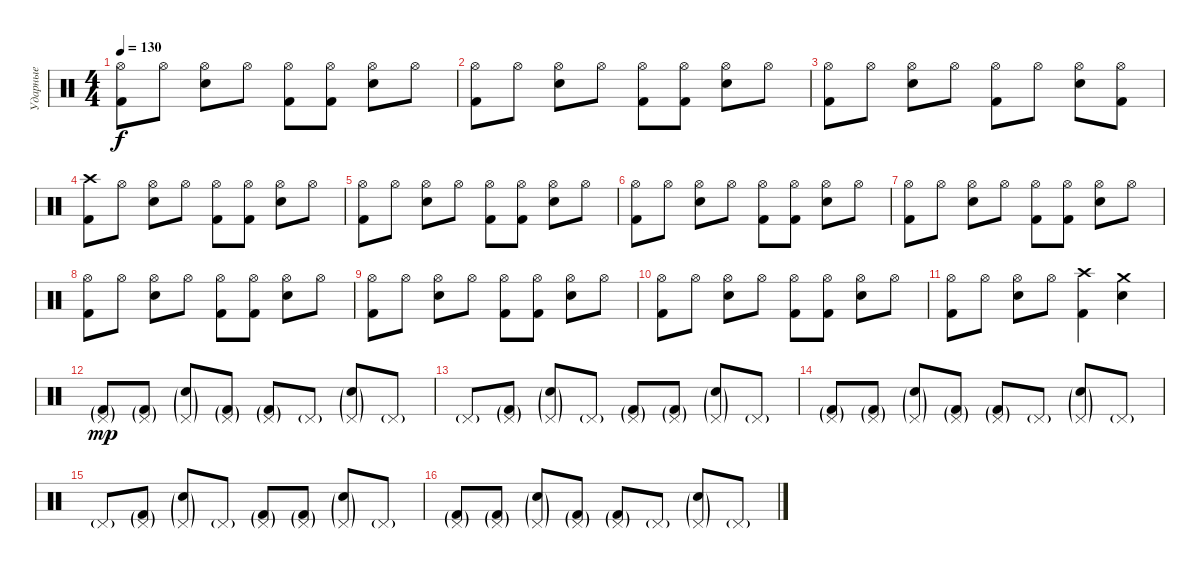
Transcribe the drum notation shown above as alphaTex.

\track ("Ударные" "Ударные") {instrument percussion}
\staff {score}
\articulation defaults
\ts (4 4)
\tempo 130
\clef neutral
\ks c
("Hi-Hat (open)" "Kick (hit) 2").8{dy f} "Hi-Hat (open)".8 ("Electric Snare (hit)" "Hi-Hat (open)").8 "Hi-Hat (open)".8 ("Hi-Hat (open)" "Kick (hit) 2").8 ("Hi-Hat (open)" "Kick (hit) 2").8 ("Hi-Hat (open)" "Electric Snare (hit)").8 "Hi-Hat (open)".8 |
("Hi-Hat (open)" "Kick (hit) 2").8 "Hi-Hat (open)".8 ("Electric Snare (hit)" "Hi-Hat (open)").8 "Hi-Hat (open)".8 ("Hi-Hat (open)" "Kick (hit) 2").8 ("Hi-Hat (open)" "Kick (hit) 2").8 ("Hi-Hat (open)" "Electric Snare (hit)").8 "Hi-Hat (open)".8 |
("Hi-Hat (open)" "Kick (hit) 2").8 "Hi-Hat (open)".8 ("Electric Snare (hit)" "Hi-Hat (open)").8 "Hi-Hat (open)".8 ("Hi-Hat (open)" "Kick (hit) 2").8 "Hi-Hat (open)".8 ("Hi-Hat (open)" "Electric Snare (hit)").8 ("Hi-Hat (open)" "Kick (hit) 2").8 |
("Crash high (hit)" "Kick (hit) 2").8 "Hi-Hat (open)".8 ("Electric Snare (hit)" "Hi-Hat (open)").8 "Hi-Hat (open)".8 ("Hi-Hat (open)" "Kick (hit) 2").8 ("Hi-Hat (open)" "Kick (hit) 2").8 ("Hi-Hat (open)" "Electric Snare (hit)").8 "Hi-Hat (open)".8 |
("Hi-Hat (open)" "Kick (hit) 2").8 "Hi-Hat (open)".8 ("Electric Snare (hit)" "Hi-Hat (open)").8 "Hi-Hat (open)".8 ("Hi-Hat (open)" "Kick (hit) 2").8 ("Hi-Hat (open)" "Kick (hit) 2").8 ("Hi-Hat (open)" "Electric Snare (hit)").8 "Hi-Hat (open)".8 |
("Hi-Hat (open)" "Kick (hit) 2").8 "Hi-Hat (open)".8 ("Electric Snare (hit)" "Hi-Hat (open)").8 "Hi-Hat (open)".8 ("Hi-Hat (open)" "Kick (hit) 2").8 ("Hi-Hat (open)" "Kick (hit) 2").8 ("Hi-Hat (open)" "Electric Snare (hit)").8 "Hi-Hat (open)".8 |
("Hi-Hat (open)" "Kick (hit) 2").8 "Hi-Hat (open)".8 ("Electric Snare (hit)" "Hi-Hat (open)").8 "Hi-Hat (open)".8 ("Hi-Hat (open)" "Kick (hit) 2").8 ("Hi-Hat (open)" "Kick (hit) 2").8 ("Hi-Hat (open)" "Electric Snare (hit)").8 "Hi-Hat (open)".8 |
("Hi-Hat (open)" "Kick (hit) 2").8 "Hi-Hat (open)".8 ("Electric Snare (hit)" "Hi-Hat (open)").8 "Hi-Hat (open)".8 ("Hi-Hat (open)" "Kick (hit) 2").8 ("Hi-Hat (open)" "Kick (hit) 2").8 ("Hi-Hat (open)" "Electric Snare (hit)").8 "Hi-Hat (open)".8 |
("Hi-Hat (open)" "Kick (hit) 2").8 "Hi-Hat (open)".8 ("Electric Snare (hit)" "Hi-Hat (open)").8 "Hi-Hat (open)".8 ("Hi-Hat (open)" "Kick (hit) 2").8 ("Hi-Hat (open)" "Kick (hit) 2").8 ("Hi-Hat (open)" "Electric Snare (hit)").8 "Hi-Hat (open)".8 |
("Hi-Hat (open)" "Kick (hit) 2").8 "Hi-Hat (open)".8 ("Electric Snare (hit)" "Hi-Hat (open)").8 "Hi-Hat (open)".8 ("Hi-Hat (open)" "Kick (hit) 2").8 ("Hi-Hat (open)" "Kick (hit) 2").8 ("Hi-Hat (open)" "Electric Snare (hit)").8 "Hi-Hat (open)".8 |
("Hi-Hat (open)" "Kick (hit) 2").8 "Hi-Hat (open)".8 ("Electric Snare (hit)" "Hi-Hat (open)").8 "Hi-Hat (open)".8 ("Crash high (hit)" "Kick (hit) 2").4 ("Crash medium (hit)" "Electric Snare (hit)").4 |
("Kick (hit) 2"{g} "Pedal Hi-Hat (hit)"{g}).8{dy mp volume 16} ("Kick (hit) 2"{g} "Pedal Hi-Hat (hit)"{g}).8 ("Snare (hit) 2"{g} "Pedal Hi-Hat (hit)"{g}).8 ("Kick (hit) 2"{g} "Pedal Hi-Hat (hit)"{g}).8 ("Kick (hit) 2"{g} "Pedal Hi-Hat (hit)"{g}).8 "Pedal Hi-Hat (hit)"{g}.8 ("Snare (hit) 2"{g} "Pedal Hi-Hat (hit)"{g}).8 "Pedal Hi-Hat (hit)"{g}.8 |
"Pedal Hi-Hat (hit)"{g}.8 ("Kick (hit) 2"{g} "Pedal Hi-Hat (hit)"{g}).8 ("Snare (hit) 2"{g} "Pedal Hi-Hat (hit)"{g}).8 "Pedal Hi-Hat (hit)"{g}.8 ("Kick (hit) 2"{g} "Pedal Hi-Hat (hit)"{g}).8 ("Kick (hit) 2"{g} "Pedal Hi-Hat (hit)"{g}).8 ("Snare (hit) 2"{g} "Pedal Hi-Hat (hit)"{g}).8 "Pedal Hi-Hat (hit)"{g}.8 |
("Kick (hit) 2"{g} "Pedal Hi-Hat (hit)"{g}).8 ("Kick (hit) 2"{g} "Pedal Hi-Hat (hit)"{g}).8 ("Snare (hit) 2"{g} "Pedal Hi-Hat (hit)"{g}).8 ("Kick (hit) 2"{g} "Pedal Hi-Hat (hit)"{g}).8 ("Kick (hit) 2"{g} "Pedal Hi-Hat (hit)"{g}).8 "Pedal Hi-Hat (hit)"{g}.8 ("Snare (hit) 2"{g} "Pedal Hi-Hat (hit)"{g}).8 "Pedal Hi-Hat (hit)"{g}.8 |
"Pedal Hi-Hat (hit)"{g}.8 ("Kick (hit) 2"{g} "Pedal Hi-Hat (hit)"{g}).8 ("Snare (hit) 2"{g} "Pedal Hi-Hat (hit)"{g}).8 "Pedal Hi-Hat (hit)"{g}.8 ("Kick (hit) 2"{g} "Pedal Hi-Hat (hit)"{g}).8 ("Kick (hit) 2"{g} "Pedal Hi-Hat (hit)"{g}).8 ("Snare (hit) 2"{g} "Pedal Hi-Hat (hit)"{g}).8 "Pedal Hi-Hat (hit)"{g}.8 |
("Kick (hit) 2"{g} "Pedal Hi-Hat (hit)"{g}).8 ("Kick (hit) 2"{g} "Pedal Hi-Hat (hit)"{g}).8 ("Snare (hit) 2"{g} "Pedal Hi-Hat (hit)"{g}).8 ("Kick (hit) 2"{g} "Pedal Hi-Hat (hit)"{g}).8 ("Kick (hit) 2"{g} "Pedal Hi-Hat (hit)"{g}).8 "Pedal Hi-Hat (hit)"{g}.8 ("Snare (hit) 2"{g} "Pedal Hi-Hat (hit)"{g}).8 "Pedal Hi-Hat (hit)"{g}.8
